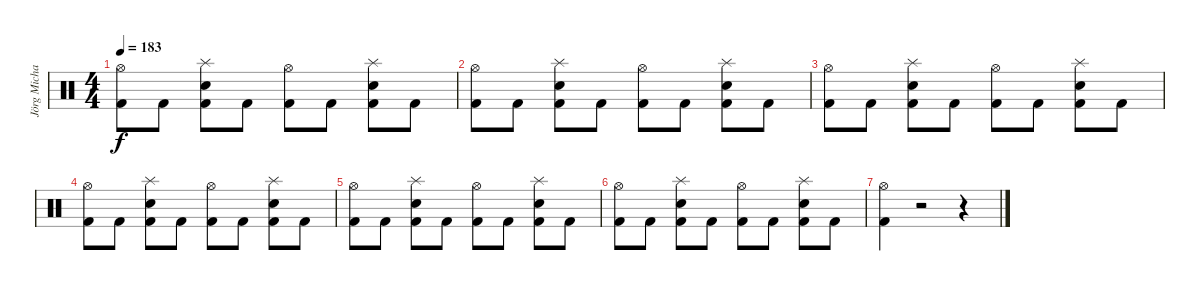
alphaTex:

\track ("Jörg Michael" "Jörg Micha") {instrument percussion}
\staff {score}
\articulation defaults
\ts (4 4)
\tempo 183
\clef neutral
\ks c
("Kick (hit) 2" "Hi-Hat (open)").8{dy f volume 11} "Kick (hit) 2".8{volume 10} ("Snare (hit) 2" "Kick (hit) 2" "Splash (hit)").8{volume 10} "Kick (hit) 2".8{volume 10} ("Kick (hit) 2" "Hi-Hat (open)").8{volume 10} "Kick (hit) 2".8{volume 10} ("Snare (hit) 2" "Kick (hit) 2" "Splash (hit)").8{volume 9} "Kick (hit) 2".8{volume 9} |
("Hi-Hat (open)" "Kick (hit) 2").8{volume 9} "Kick (hit) 2".8{volume 9} ("Snare (hit) 2" "Kick (hit) 2" "Splash (hit)").8{volume 8} "Kick (hit) 2".8{volume 8} ("Kick (hit) 2" "Hi-Hat (open)").8{volume 8} "Kick (hit) 2".8{volume 8} ("Snare (hit) 2" "Kick (hit) 2" "Splash (hit)").8{volume 8} "Kick (hit) 2".8{volume 7} |
("Kick (hit) 2" "Hi-Hat (open)").8{volume 7} "Kick (hit) 2".8{volume 7} ("Snare (hit) 2" "Kick (hit) 2" "Splash (hit)").8{volume 7} "Kick (hit) 2".8{volume 6} ("Kick (hit) 2" "Hi-Hat (open)").8{volume 6} "Kick (hit) 2".8{volume 6} ("Snare (hit) 2" "Kick (hit) 2" "Splash (hit)").8{volume 6} "Kick (hit) 2".8{volume 6} |
("Hi-Hat (open)" "Kick (hit) 2").8{volume 5} "Kick (hit) 2".8{volume 5} ("Snare (hit) 2" "Kick (hit) 2" "Splash (hit)").8{volume 5} "Kick (hit) 2".8{volume 5} ("Kick (hit) 2" "Hi-Hat (open)").8{volume 4} "Kick (hit) 2".8{volume 4} ("Snare (hit) 2" "Kick (hit) 2" "Splash (hit)").8{volume 4} "Kick (hit) 2".8{volume 4} |
("Kick (hit) 2" "Hi-Hat (open)").8{volume 4} "Kick (hit) 2".8{volume 3} ("Snare (hit) 2" "Kick (hit) 2" "Splash (hit)").8{volume 3} "Kick (hit) 2".8{volume 3} ("Kick (hit) 2" "Hi-Hat (open)").8{volume 3} "Kick (hit) 2".8{volume 2} ("Snare (hit) 2" "Kick (hit) 2" "Splash (hit)").8{volume 2} "Kick (hit) 2".8{volume 2} |
("Hi-Hat (open)" "Kick (hit) 2").8{volume 2} "Kick (hit) 2".8{volume 2} ("Snare (hit) 2" "Kick (hit) 2" "Splash (hit)").8{volume 1} "Kick (hit) 2".8{volume 1} ("Kick (hit) 2" "Hi-Hat (open)").8{volume 1} "Kick (hit) 2".8{volume 1} ("Snare (hit) 2" "Kick (hit) 2" "Splash (hit)").8{volume 0} "Kick (hit) 2".8{volume 0} |
("Kick (hit) 2" "Hi-Hat (open)").4{volume 0} r.2 r.4
